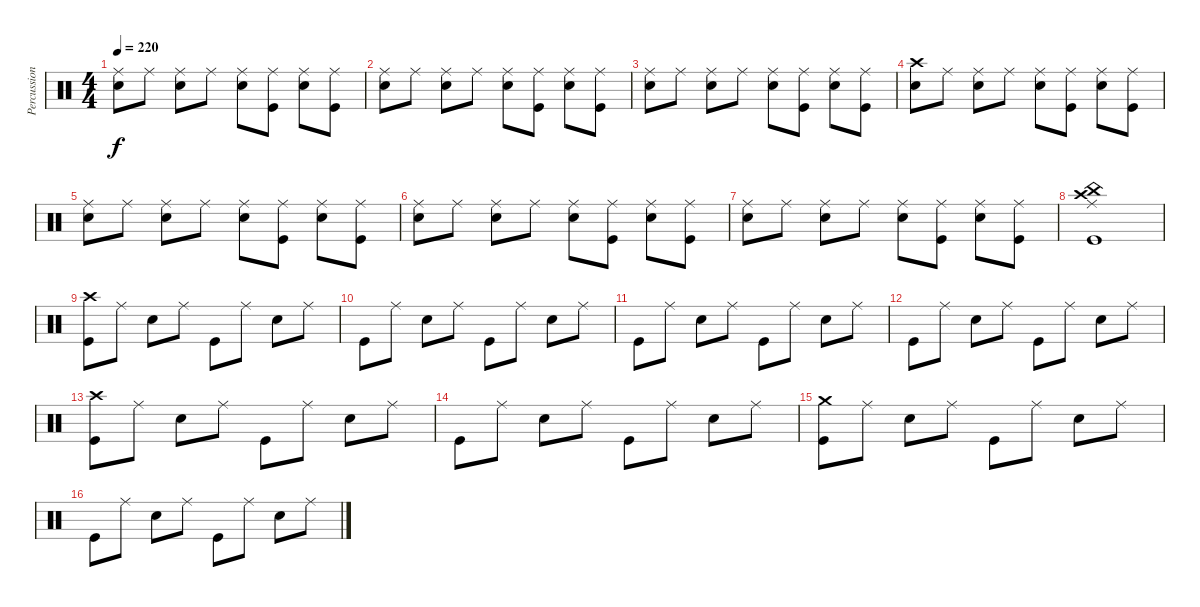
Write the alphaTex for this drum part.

\track ("Percussions" "Percussion") {instrument percussion}
\staff {score}
\articulation defaults
\ts (4 4)
\tempo 220
\clef neutral
\ks c
("Ride (middle)" "Electric Snare (hit)").8{dy f} "Ride (middle)".8 ("Ride (middle)" "Electric Snare (hit)").8 "Ride (middle)".8 ("Ride (middle)" "Electric Snare (hit)").8 ("Ride (middle)" "Kick (hit)").8 ("Ride (middle)" "Electric Snare (hit)").8 ("Ride (middle)" "Kick (hit)").8 |
("Ride (middle)" "Electric Snare (hit)").8 "Ride (middle)".8 ("Ride (middle)" "Electric Snare (hit)").8 "Ride (middle)".8 ("Ride (middle)" "Electric Snare (hit)").8 ("Ride (middle)" "Kick (hit)").8 ("Ride (middle)" "Electric Snare (hit)").8 ("Ride (middle)" "Kick (hit)").8 |
("Ride (middle)" "Electric Snare (hit)").8 "Ride (middle)".8 ("Ride (middle)" "Electric Snare (hit)").8 "Ride (middle)".8 ("Ride (middle)" "Electric Snare (hit)").8 ("Ride (middle)" "Kick (hit)").8 ("Ride (middle)" "Electric Snare (hit)").8 ("Ride (middle)" "Kick (hit)").8 |
("Crash high (hit)" "Electric Snare (hit)").8 "Ride (middle)".8 ("Ride (middle)" "Electric Snare (hit)").8 "Ride (middle)".8 ("Ride (middle)" "Electric Snare (hit)").8 ("Ride (middle)" "Kick (hit)").8 ("Ride (middle)" "Electric Snare (hit)").8 ("Ride (middle)" "Kick (hit)").8 |
("Ride (middle)" "Electric Snare (hit)").8 "Ride (middle)".8 ("Ride (middle)" "Electric Snare (hit)").8 "Ride (middle)".8 ("Ride (middle)" "Electric Snare (hit)").8 ("Ride (middle)" "Kick (hit)").8 ("Ride (middle)" "Electric Snare (hit)").8 ("Ride (middle)" "Kick (hit)").8 |
("Ride (middle)" "Electric Snare (hit)").8 "Ride (middle)".8 ("Ride (middle)" "Electric Snare (hit)").8 "Ride (middle)".8 ("Ride (middle)" "Electric Snare (hit)").8 ("Ride (middle)" "Kick (hit)").8 ("Ride (middle)" "Electric Snare (hit)").8 ("Ride (middle)" "Kick (hit)").8 |
("Ride (middle)" "Electric Snare (hit)").8 "Ride (middle)".8 ("Ride (middle)" "Electric Snare (hit)").8 "Ride (middle)".8 ("Ride (middle)" "Electric Snare (hit)").8 ("Ride (middle)" "Kick (hit)").8 ("Ride (middle)" "Electric Snare (hit)").8 ("Ride (middle)" "Kick (hit)").8 |
("China (hit)" "Crash high (hit)" "Ride (middle)" "Kick (hit)").1 |
("Crash high (hit)" "Kick (hit)").8 "Ride (middle)".8 "Electric Snare (hit)".8 "Ride (middle)".8 "Kick (hit)".8 "Ride (middle)".8 "Electric Snare (hit)".8 "Ride (middle)".8 |
"Kick (hit)".8 "Ride (middle)".8 "Electric Snare (hit)".8 "Ride (middle)".8 "Kick (hit)".8 "Ride (middle)".8 "Electric Snare (hit)".8 "Ride (middle)".8 |
"Kick (hit)".8 "Ride (middle)".8 "Electric Snare (hit)".8 "Ride (middle)".8 "Kick (hit)".8 "Ride (middle)".8 "Electric Snare (hit)".8 "Ride (middle)".8 |
"Kick (hit)".8 "Ride (middle)".8 "Electric Snare (hit)".8 "Ride (middle)".8 "Kick (hit)".8 "Ride (middle)".8 "Electric Snare (hit)".8 "Ride (middle)".8 |
("Crash high (hit)" "Kick (hit)").8 "Ride (middle)".8 "Electric Snare (hit)".8 "Ride (middle)".8 "Kick (hit)".8 "Ride (middle)".8 "Electric Snare (hit)".8 "Ride (middle)".8 |
"Kick (hit)".8 "Ride (middle)".8 "Electric Snare (hit)".8 "Ride (middle)".8 "Kick (hit)".8 "Ride (middle)".8 "Electric Snare (hit)".8 "Ride (middle)".8 |
("Crash medium (hit)" "Kick (hit)").8 "Ride (middle)".8 "Electric Snare (hit)".8 "Ride (middle)".8 "Kick (hit)".8 "Ride (middle)".8 "Electric Snare (hit)".8 "Ride (middle)".8 |
"Kick (hit)".8 "Ride (middle)".8 "Electric Snare (hit)".8 "Ride (middle)".8 "Kick (hit)".8 "Ride (middle)".8 "Electric Snare (hit)".8 "Ride (middle)".8
